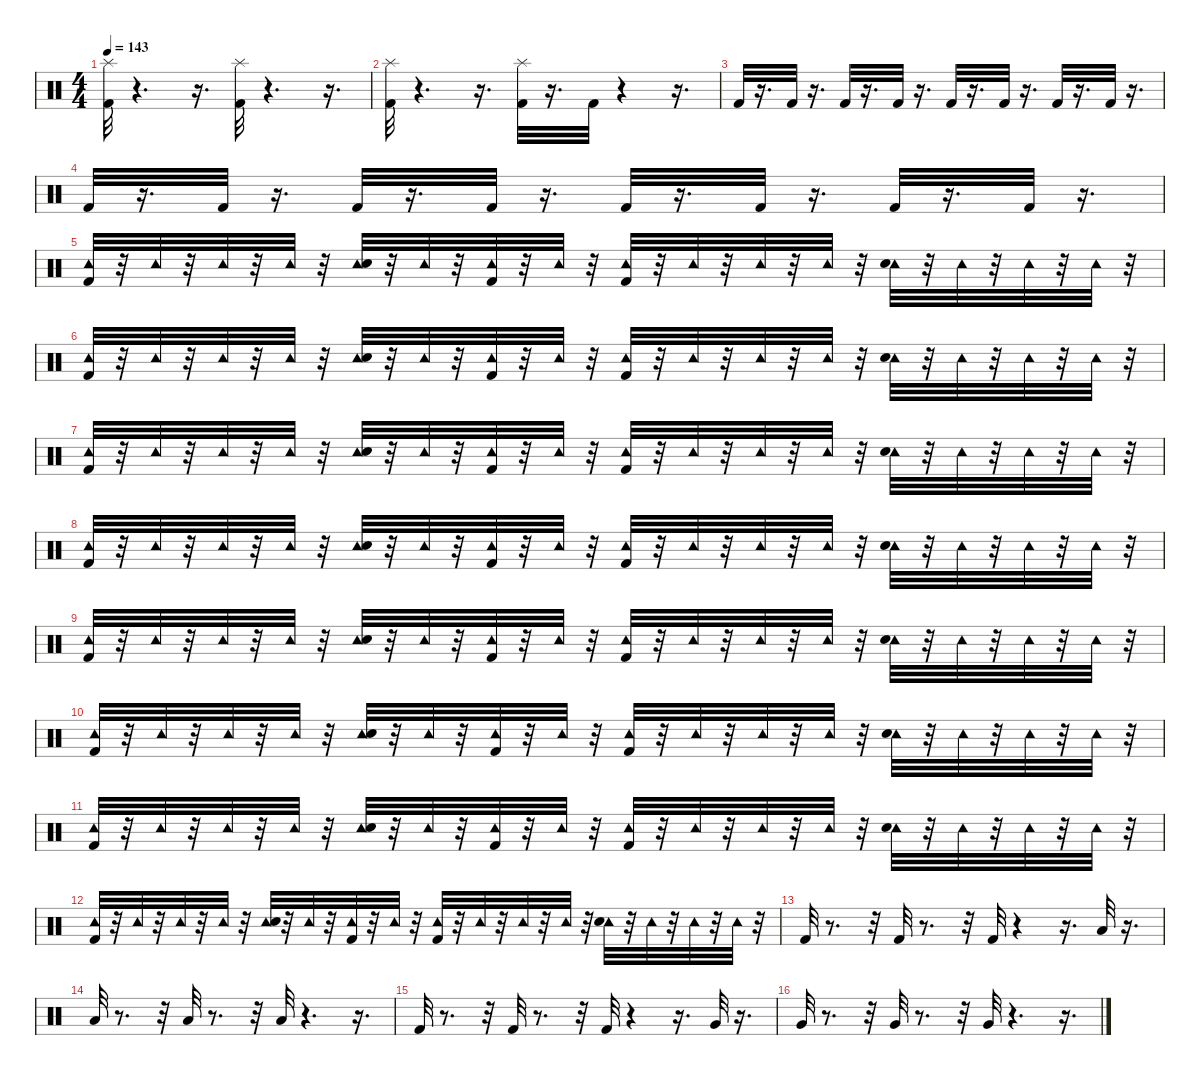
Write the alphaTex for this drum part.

\defaultSystemsLayout 4
\hideDynamics
\bracketExtendMode nobrackets
\singleTrackTrackNamePolicy hidden
\multiTrackTrackNamePolicy hidden
\firstSystemTrackNameMode fullname
\firstSystemTrackNameOrientation horizontal
\otherSystemsTrackNameOrientation horizontal
\track ("Drums" "drm.") {instrument percussion}
\staff {score}
\articulation defaults
\ts (4 4)
\tempo 143
\clef neutral
\ks c
("Splash (hit)" "Kick (hit) 2").32{dy fff beam Down} r.4{d beam Down} r.16{d beam Down} ("Splash (hit)" "Kick (hit) 2").32{beam Down} r.4{d beam Down} r.16{d beam Down} |
("Splash (hit)" "Kick (hit) 2").32{beam Down} r.4{d beam Down} r.16{d beam Down} ("Splash (hit)" "Kick (hit) 2").32{beam Down} r.16{d beam Down} "Kick (hit) 2".32{dy ff beam Down} r.4{beam Down} r.16{d beam Down} |
"Kick (hit) 2".32{dy f beam Up} r.16{d beam Up} "Kick (hit) 2".32{beam Up} r.16{d beam Up} "Kick (hit) 2".32{beam Up} r.16{d beam Up} "Kick (hit) 2".32{dy ff beam Up} r.16{d beam Up} "Kick (hit) 2".32{dy fff beam Up} r.16{d beam Up} "Kick (hit) 2".32{dy ff beam Up} r.16{d beam Up} "Kick (hit) 2".32{beam Up} r.16{d beam Up} "Kick (hit) 2".32{beam Up} r.16{d beam Up} |
"Kick (hit) 2".32{beam Up} r.16{d beam Up} "Kick (hit) 2".32{beam Up} r.16{d beam Up} "Kick (hit) 2".32{beam Up} r.16{d beam Up} "Kick (hit) 2".32{beam Up} r.16{d beam Up} "Kick (hit) 2".32{dy fff beam Up} r.16{d beam Up} "Kick (hit) 2".32{dy ff beam Up} r.16{d beam Up} "Kick (hit) 2".32{beam Up} r.16{d beam Up} "Kick (hit) 2".32{dy fff beam Up} r.16{d beam Up} |
("Kick (hit) 2" "Tambourine (hit)").32{dy ff beam Up} r.32{beam Up} "Tambourine (hit)".32{dy mf beam Up} r.32{beam Up} "Tambourine (hit)".32{beam Up} r.32{beam Up} "Tambourine (hit)".32{beam Up} r.32{beam Up} ("Tambourine (hit)" "Snare (hit) 2").32{dy fff beam Up} r.32{beam Up} "Tambourine (hit)".32{dy mf beam Up} r.32{beam Up} ("Kick (hit) 2" "Tambourine (hit)").32{dy fff beam Up} r.32{beam Up} "Tambourine (hit)".32{dy mf beam Up} r.32{beam Up} ("Kick (hit) 2" "Tambourine (hit)").32{dy ff beam Up} r.32{beam Up} "Tambourine (hit)".32{dy mf beam Up} r.32{beam Up} "Tambourine (hit)".32{dy mp beam Up} r.32{beam Up} "Tambourine (hit)".32{dy mf beam Up} r.32{beam Up} ("Tambourine (hit)" "Snare (hit) 2").32{dy fff beam Down} r.32{beam Down} "Tambourine (hit)".32{dy mf beam Down} r.32{beam Down} "Tambourine (hit)".32{beam Down} r.32{beam Down} "Tambourine (hit)".32{beam Down} r.32{beam Down} |
("Kick (hit) 2" "Tambourine (hit)").32{dy ff beam Up} r.32{beam Up} "Tambourine (hit)".32{dy mf beam Up} r.32{beam Up} "Tambourine (hit)".32{beam Up} r.32{beam Up} "Tambourine (hit)".32{beam Up} r.32{beam Up} ("Tambourine (hit)" "Snare (hit) 2").32{dy fff beam Up} r.32{beam Up} "Tambourine (hit)".32{dy mf beam Up} r.32{beam Up} ("Kick (hit) 2" "Tambourine (hit)").32{dy fff beam Up} r.32{beam Up} "Tambourine (hit)".32{dy mf beam Up} r.32{beam Up} ("Kick (hit) 2" "Tambourine (hit)").32{dy ff beam Up} r.32{beam Up} "Tambourine (hit)".32{dy mf beam Up} r.32{beam Up} "Tambourine (hit)".32{dy mp beam Up} r.32{beam Up} "Tambourine (hit)".32{dy mf beam Up} r.32{beam Up} ("Tambourine (hit)" "Snare (hit) 2").32{dy fff beam Down} r.32{beam Down} "Tambourine (hit)".32{dy mf beam Down} r.32{beam Down} "Tambourine (hit)".32{beam Down} r.32{beam Down} "Tambourine (hit)".32{beam Down} r.32{beam Down} |
("Kick (hit) 2" "Tambourine (hit)").32{dy ff beam Up} r.32{beam Up} "Tambourine (hit)".32{dy mf beam Up} r.32{beam Up} "Tambourine (hit)".32{beam Up} r.32{beam Up} "Tambourine (hit)".32{beam Up} r.32{beam Up} ("Tambourine (hit)" "Snare (hit) 2").32{dy fff beam Up} r.32{beam Up} "Tambourine (hit)".32{dy mf beam Up} r.32{beam Up} ("Kick (hit) 2" "Tambourine (hit)").32{dy fff beam Up} r.32{beam Up} "Tambourine (hit)".32{dy mf beam Up} r.32{beam Up} ("Kick (hit) 2" "Tambourine (hit)").32{dy ff beam Up} r.32{beam Up} "Tambourine (hit)".32{dy mf beam Up} r.32{beam Up} "Tambourine (hit)".32{dy mp beam Up} r.32{beam Up} "Tambourine (hit)".32{dy mf beam Up} r.32{beam Up} ("Tambourine (hit)" "Snare (hit) 2").32{dy fff beam Down} r.32{beam Down} "Tambourine (hit)".32{dy mf beam Down} r.32{beam Down} "Tambourine (hit)".32{beam Down} r.32{beam Down} "Tambourine (hit)".32{beam Down} r.32{beam Down} |
("Kick (hit) 2" "Tambourine (hit)").32{dy ff beam Up} r.32{beam Up} "Tambourine (hit)".32{dy mf beam Up} r.32{beam Up} "Tambourine (hit)".32{beam Up} r.32{beam Up} "Tambourine (hit)".32{beam Up} r.32{beam Up} ("Tambourine (hit)" "Snare (hit) 2").32{dy fff beam Up} r.32{beam Up} "Tambourine (hit)".32{dy mf beam Up} r.32{beam Up} ("Kick (hit) 2" "Tambourine (hit)").32{dy fff beam Up} r.32{beam Up} "Tambourine (hit)".32{dy mf beam Up} r.32{beam Up} ("Kick (hit) 2" "Tambourine (hit)").32{dy ff beam Up} r.32{beam Up} "Tambourine (hit)".32{dy mf beam Up} r.32{beam Up} "Tambourine (hit)".32{dy mp beam Up} r.32{beam Up} "Tambourine (hit)".32{dy mf beam Up} r.32{beam Up} ("Tambourine (hit)" "Snare (hit) 2").32{dy fff beam Down} r.32{beam Down} "Tambourine (hit)".32{dy mf beam Down} r.32{beam Down} "Tambourine (hit)".32{beam Down} r.32{beam Down} "Tambourine (hit)".32{beam Down} r.32{beam Down} |
("Kick (hit) 2" "Tambourine (hit)").32{dy ff beam Up} r.32{beam Up} "Tambourine (hit)".32{dy mf beam Up} r.32{beam Up} "Tambourine (hit)".32{beam Up} r.32{beam Up} "Tambourine (hit)".32{beam Up} r.32{beam Up} ("Tambourine (hit)" "Snare (hit) 2").32{dy fff beam Up} r.32{beam Up} "Tambourine (hit)".32{dy mf beam Up} r.32{beam Up} ("Kick (hit) 2" "Tambourine (hit)").32{dy fff beam Up} r.32{beam Up} "Tambourine (hit)".32{dy mf beam Up} r.32{beam Up} ("Kick (hit) 2" "Tambourine (hit)").32{dy ff beam Up} r.32{beam Up} "Tambourine (hit)".32{dy mf beam Up} r.32{beam Up} "Tambourine (hit)".32{dy mp beam Up} r.32{beam Up} "Tambourine (hit)".32{dy mf beam Up} r.32{beam Up} ("Tambourine (hit)" "Snare (hit) 2").32{dy fff beam Down} r.32{beam Down} "Tambourine (hit)".32{dy mf beam Down} r.32{beam Down} "Tambourine (hit)".32{beam Down} r.32{beam Down} "Tambourine (hit)".32{beam Down} r.32{beam Down} |
("Kick (hit) 2" "Tambourine (hit)").32{dy ff beam Up} r.32{beam Up} "Tambourine (hit)".32{dy mf beam Up} r.32{beam Up} "Tambourine (hit)".32{beam Up} r.32{beam Up} "Tambourine (hit)".32{beam Up} r.32{beam Up} ("Tambourine (hit)" "Snare (hit) 2").32{dy fff beam Up} r.32{beam Up} "Tambourine (hit)".32{dy mf beam Up} r.32{beam Up} ("Kick (hit) 2" "Tambourine (hit)").32{dy fff beam Up} r.32{beam Up} "Tambourine (hit)".32{dy mf beam Up} r.32{beam Up} ("Kick (hit) 2" "Tambourine (hit)").32{dy ff beam Up} r.32{beam Up} "Tambourine (hit)".32{dy mf beam Up} r.32{beam Up} "Tambourine (hit)".32{dy mp beam Up} r.32{beam Up} "Tambourine (hit)".32{dy mf beam Up} r.32{beam Up} ("Tambourine (hit)" "Snare (hit) 2").32{dy fff beam Down} r.32{beam Down} "Tambourine (hit)".32{dy mf beam Down} r.32{beam Down} "Tambourine (hit)".32{beam Down} r.32{beam Down} "Tambourine (hit)".32{beam Down} r.32{beam Down} |
("Kick (hit) 2" "Tambourine (hit)").32{dy ff beam Up} r.32{beam Up} "Tambourine (hit)".32{dy mf beam Up} r.32{beam Up} "Tambourine (hit)".32{beam Up} r.32{beam Up} "Tambourine (hit)".32{beam Up} r.32{beam Up} ("Tambourine (hit)" "Snare (hit) 2").32{dy fff beam Up} r.32{beam Up} "Tambourine (hit)".32{dy mf beam Up} r.32{beam Up} ("Kick (hit) 2" "Tambourine (hit)").32{dy fff beam Up} r.32{beam Up} "Tambourine (hit)".32{dy mf beam Up} r.32{beam Up} ("Kick (hit) 2" "Tambourine (hit)").32{dy ff beam Up} r.32{beam Up} "Tambourine (hit)".32{dy mf beam Up} r.32{beam Up} "Tambourine (hit)".32{dy mp beam Up} r.32{beam Up} "Tambourine (hit)".32{dy mf beam Up} r.32{beam Up} ("Tambourine (hit)" "Snare (hit) 2").32{dy fff beam Down} r.32{beam Down} "Tambourine (hit)".32{dy mf beam Down} r.32{beam Down} "Tambourine (hit)".32{beam Down} r.32{beam Down} "Tambourine (hit)".32{beam Down} r.32{beam Down} |
("Kick (hit) 2" "Tambourine (hit)").32{dy ff beam Up} r.32{beam Up} "Tambourine (hit)".32{dy mf beam Up} r.32{beam Up} "Tambourine (hit)".32{beam Up} r.32{beam Up} "Tambourine (hit)".32{beam Up} r.32{beam Up} ("Tambourine (hit)" "Snare (hit) 2").32{dy fff beam Up} r.32{beam Up} "Tambourine (hit)".32{dy mf beam Up} r.32{beam Up} ("Kick (hit) 2" "Tambourine (hit)").32{dy fff beam Up} r.32{beam Up} "Tambourine (hit)".32{dy mf beam Up} r.32{beam Up} ("Kick (hit) 2" "Tambourine (hit)").32{dy ff beam Up} r.32{beam Up} "Tambourine (hit)".32{dy mf beam Up} r.32{beam Up} "Tambourine (hit)".32{dy mp beam Up} r.32{beam Up} "Tambourine (hit)".32{dy mf beam Up} r.32{beam Up} ("Tambourine (hit)" "Snare (hit) 2").32{dy fff beam Down} r.32{beam Down} "Tambourine (hit)".32{dy mf beam Down} r.32{beam Down} "Tambourine (hit)".32{beam Down} r.32{beam Down} "Tambourine (hit)".32{beam Down} r.32{beam Down} |
"Kick (hit) 2".32{dy fff beam Up} r.8{d beam Up} r.32{beam Up} "Kick (hit) 2".32{beam Up} r.8{d beam Up} r.32{beam Up} "Kick (hit) 2".32{beam Up} r.4{beam Up} r.16{d beam Up} "Low Tom (hit)".32{dy ff beam Up} r.16{d beam Up} |
"Low Tom (hit)".32{dy fff beam Up} r.8{d beam Up} r.32{beam Up} "Low Tom (hit)".32{dy ff beam Up} r.8{d beam Up} r.32{beam Up} "Low Tom (hit)".32{dy fff beam Up} r.4{d beam Up} r.16{d beam Up} |
"Kick (hit) 2".32{beam Up} r.8{d beam Up} r.32{beam Up} "Kick (hit) 2".32{beam Up} r.8{d beam Up} r.32{beam Up} "Kick (hit) 2".32{beam Up} r.4{beam Up} r.16{d beam Up} "Very Low Tom (hit)".32{beam Up} r.16{d beam Up} |
"Very Low Tom (hit)".32{dy ff beam Up} r.8{d beam Up} r.32{beam Up} "Very Low Tom (hit)".32{beam Up} r.8{d beam Up} r.32{beam Up} "Very Low Tom (hit)".32{dy fff beam Up} r.4{d beam Up} r.16{d beam Up}
